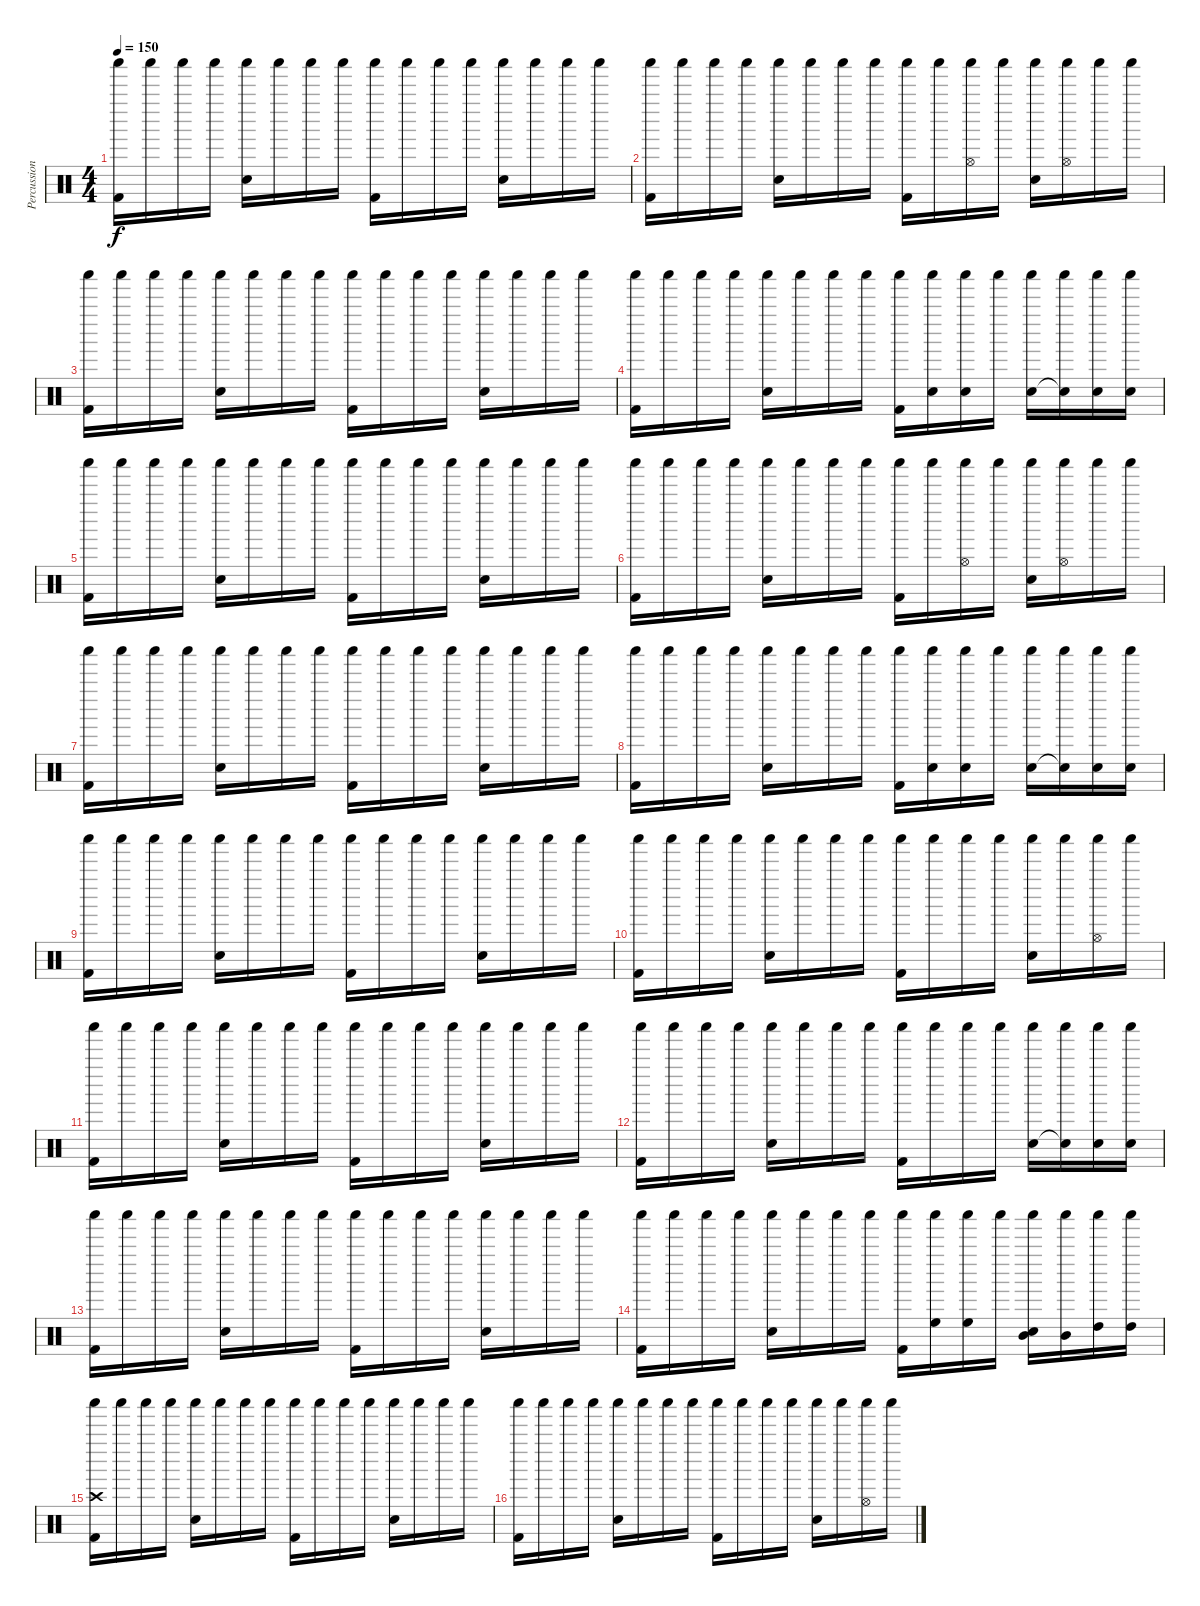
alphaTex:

\track ("Percussion" "Percussion") {instrument percussion}
\staff {score}
\articulation defaults
\ts (4 4)
\tempo 150
\clef neutral
\ks c
("Shaker (hit)" "Kick (hit) 2").16{dy f} "Shaker (hit)".16 "Shaker (hit)".16 "Shaker (hit)".16 ("Shaker (hit)" "Snare (hit) 2").16 "Shaker (hit)".16 "Shaker (hit)".16 "Shaker (hit)".16 ("Shaker (hit)" "Kick (hit) 2").16 "Shaker (hit)".16 "Shaker (hit)".16 "Shaker (hit)".16 ("Shaker (hit)" "Snare (hit) 2").16 "Shaker (hit)".16 "Shaker (hit)".16 "Shaker (hit)".16 |
("Shaker (hit)" "Kick (hit) 2").16 "Shaker (hit)".16 "Shaker (hit)".16 "Shaker (hit)".16 ("Shaker (hit)" "Snare (hit) 2").16 "Shaker (hit)".16 "Shaker (hit)".16 "Shaker (hit)".16 ("Shaker (hit)" "Kick (hit) 2").16 "Shaker (hit)".16 ("Shaker (hit)" "Hi-Hat (open)").16 "Shaker (hit)".16 ("Shaker (hit)" "Snare (hit) 2").16 ("Shaker (hit)" "Hi-Hat (open)").16 "Shaker (hit)".16 "Shaker (hit)".16 |
("Shaker (hit)" "Kick (hit) 2").16 "Shaker (hit)".16 "Shaker (hit)".16 "Shaker (hit)".16 ("Shaker (hit)" "Snare (hit) 2").16 "Shaker (hit)".16 "Shaker (hit)".16 "Shaker (hit)".16 ("Shaker (hit)" "Kick (hit) 2").16 "Shaker (hit)".16 "Shaker (hit)".16 "Shaker (hit)".16 ("Shaker (hit)" "Snare (hit) 2").16 "Shaker (hit)".16 "Shaker (hit)".16 "Shaker (hit)".16 |
("Shaker (hit)" "Kick (hit) 2").16 "Shaker (hit)".16 "Shaker (hit)".16 "Shaker (hit)".16 ("Shaker (hit)" "Snare (hit) 2").16 "Shaker (hit)".16 "Shaker (hit)".16 "Shaker (hit)".16 ("Shaker (hit)" "Kick (hit) 2").16 ("Shaker (hit)" "Snare (hit) 2").16 ("Shaker (hit)" "Snare (hit) 2").16 "Shaker (hit)".16 ("Shaker (hit)" "Snare (hit) 2").16 ("Shaker (hit)" "Snare (hit) 2"{t}).16 ("Shaker (hit)" "Snare (hit) 2").16 ("Shaker (hit)" "Snare (hit) 2").16 |
("Shaker (hit)" "Kick (hit) 2").16 "Shaker (hit)".16 "Shaker (hit)".16 "Shaker (hit)".16 ("Shaker (hit)" "Snare (hit) 2").16 "Shaker (hit)".16 "Shaker (hit)".16 "Shaker (hit)".16 ("Shaker (hit)" "Kick (hit) 2").16 "Shaker (hit)".16 "Shaker (hit)".16 "Shaker (hit)".16 ("Shaker (hit)" "Snare (hit) 2").16 "Shaker (hit)".16 "Shaker (hit)".16 "Shaker (hit)".16 |
("Shaker (hit)" "Kick (hit) 2").16 "Shaker (hit)".16 "Shaker (hit)".16 "Shaker (hit)".16 ("Shaker (hit)" "Snare (hit) 2").16 "Shaker (hit)".16 "Shaker (hit)".16 "Shaker (hit)".16 ("Shaker (hit)" "Kick (hit) 2").16 "Shaker (hit)".16 ("Shaker (hit)" "Hi-Hat (open)").16 "Shaker (hit)".16 ("Shaker (hit)" "Snare (hit) 2").16 ("Shaker (hit)" "Hi-Hat (open)").16 "Shaker (hit)".16 "Shaker (hit)".16 |
("Shaker (hit)" "Kick (hit) 2").16 "Shaker (hit)".16 "Shaker (hit)".16 "Shaker (hit)".16 ("Shaker (hit)" "Snare (hit) 2").16 "Shaker (hit)".16 "Shaker (hit)".16 "Shaker (hit)".16 ("Shaker (hit)" "Kick (hit) 2").16 "Shaker (hit)".16 "Shaker (hit)".16 "Shaker (hit)".16 ("Shaker (hit)" "Snare (hit) 2").16 "Shaker (hit)".16 "Shaker (hit)".16 "Shaker (hit)".16 |
("Shaker (hit)" "Kick (hit) 2").16 "Shaker (hit)".16 "Shaker (hit)".16 "Shaker (hit)".16 ("Shaker (hit)" "Snare (hit) 2").16 "Shaker (hit)".16 "Shaker (hit)".16 "Shaker (hit)".16 ("Shaker (hit)" "Kick (hit) 2").16 ("Shaker (hit)" "Snare (hit) 2").16 ("Shaker (hit)" "Snare (hit) 2").16 "Shaker (hit)".16 ("Shaker (hit)" "Snare (hit) 2").16 ("Shaker (hit)" "Snare (hit) 2"{t}).16 ("Shaker (hit)" "Snare (hit) 2").16 ("Shaker (hit)" "Snare (hit) 2").16 |
("Shaker (hit)" "Kick (hit) 2").16 "Shaker (hit)".16 "Shaker (hit)".16 "Shaker (hit)".16 ("Shaker (hit)" "Snare (hit) 2").16 "Shaker (hit)".16 "Shaker (hit)".16 "Shaker (hit)".16 ("Shaker (hit)" "Kick (hit) 2").16 "Shaker (hit)".16 "Shaker (hit)".16 "Shaker (hit)".16 ("Shaker (hit)" "Snare (hit) 2").16 "Shaker (hit)".16 "Shaker (hit)".16 "Shaker (hit)".16 |
("Shaker (hit)" "Kick (hit) 2").16 "Shaker (hit)".16 "Shaker (hit)".16 "Shaker (hit)".16 ("Shaker (hit)" "Snare (hit) 2").16 "Shaker (hit)".16 "Shaker (hit)".16 "Shaker (hit)".16 ("Shaker (hit)" "Kick (hit) 2").16 "Shaker (hit)".16 "Shaker (hit)".16 "Shaker (hit)".16 ("Shaker (hit)" "Snare (hit) 2").16 "Shaker (hit)".16 ("Shaker (hit)" "Hi-Hat (open)").16 "Shaker (hit)".16 |
("Shaker (hit)" "Kick (hit) 2").16 "Shaker (hit)".16 "Shaker (hit)".16 "Shaker (hit)".16 ("Shaker (hit)" "Snare (hit) 2").16 "Shaker (hit)".16 "Shaker (hit)".16 "Shaker (hit)".16 ("Shaker (hit)" "Kick (hit) 2").16 "Shaker (hit)".16 "Shaker (hit)".16 "Shaker (hit)".16 ("Shaker (hit)" "Snare (hit) 2").16 "Shaker (hit)".16 "Shaker (hit)".16 "Shaker (hit)".16 |
("Shaker (hit)" "Kick (hit) 2").16 "Shaker (hit)".16 "Shaker (hit)".16 "Shaker (hit)".16 ("Shaker (hit)" "Snare (hit) 2").16 "Shaker (hit)".16 "Shaker (hit)".16 "Shaker (hit)".16 ("Shaker (hit)" "Kick (hit) 2").16 "Shaker (hit)".16 "Shaker (hit)".16 "Shaker (hit)".16 ("Shaker (hit)" "Snare (hit) 2").16 ("Shaker (hit)" "Snare (hit) 2"{t}).16 ("Shaker (hit)" "Snare (hit) 2").16 ("Shaker (hit)" "Snare (hit) 2").16 |
("Shaker (hit)" "Kick (hit) 2").16 "Shaker (hit)".16 "Shaker (hit)".16 "Shaker (hit)".16 ("Shaker (hit)" "Snare (hit) 2").16 "Shaker (hit)".16 "Shaker (hit)".16 "Shaker (hit)".16 ("Shaker (hit)" "Kick (hit) 2").16 "Shaker (hit)".16 "Shaker (hit)".16 "Shaker (hit)".16 ("Shaker (hit)" "Snare (hit) 2").16 "Shaker (hit)".16 "Shaker (hit)".16 "Shaker (hit)".16 |
("Shaker (hit)" "Kick (hit) 2").16 "Shaker (hit)".16 "Shaker (hit)".16 "Shaker (hit)".16 ("Shaker (hit)" "Snare (hit) 2").16 "Shaker (hit)".16 "Shaker (hit)".16 "Shaker (hit)".16 ("Shaker (hit)" "Kick (hit) 2").16 ("Shaker (hit)" "High Floor Tom (hit)").16 ("Shaker (hit)" "High Floor Tom (hit)").16 "Shaker (hit)".16 ("Shaker (hit)" "Mid Tom (hit)" "Snare (hit) 2").16 ("Shaker (hit)" "Mid Tom (hit)").16 ("Shaker (hit)" "High Tom (hit)").16 ("Shaker (hit)" "High Tom (hit)").16 |
("Shaker (hit)" "Crash high (hit)" "Kick (hit) 2").16 "Shaker (hit)".16 "Shaker (hit)".16 "Shaker (hit)".16 ("Shaker (hit)" "Snare (hit) 2").16 "Shaker (hit)".16 "Shaker (hit)".16 "Shaker (hit)".16 ("Shaker (hit)" "Kick (hit) 2").16 "Shaker (hit)".16 "Shaker (hit)".16 "Shaker (hit)".16 ("Shaker (hit)" "Snare (hit) 2").16 "Shaker (hit)".16 "Shaker (hit)".16 "Shaker (hit)".16 |
("Shaker (hit)" "Kick (hit) 2").16 "Shaker (hit)".16 "Shaker (hit)".16 "Shaker (hit)".16 ("Shaker (hit)" "Snare (hit) 2").16 "Shaker (hit)".16 "Shaker (hit)".16 "Shaker (hit)".16 ("Shaker (hit)" "Kick (hit) 2").16 "Shaker (hit)".16 "Shaker (hit)".16 "Shaker (hit)".16 ("Shaker (hit)" "Snare (hit) 2").16 "Shaker (hit)".16 ("Shaker (hit)" "Hi-Hat (open)").16 "Shaker (hit)".16
